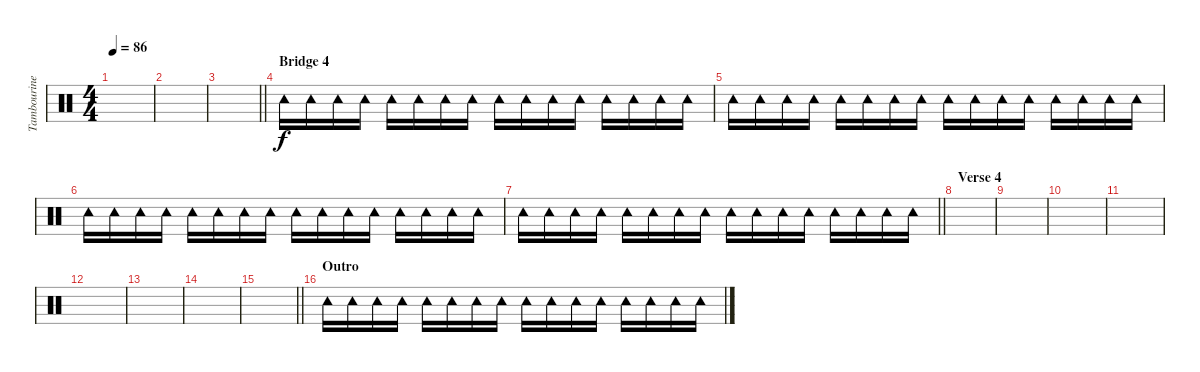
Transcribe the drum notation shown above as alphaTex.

\track ("Tambourine" "Tambourine") {instrument percussion}
\staff {score}
\articulation defaults
\ts (4 4)
\tempo 86
\clef neutral
\ks c
|
|
\barLineRight lightlight
|
\section ("" "Bridge 4")
"Tambourine (hit)".16 "Tambourine (hit)".16 "Tambourine (hit)".16 "Tambourine (hit)".16 "Tambourine (hit)".16 "Tambourine (hit)".16 "Tambourine (hit)".16 "Tambourine (hit)".16 "Tambourine (hit)".16 "Tambourine (hit)".16 "Tambourine (hit)".16 "Tambourine (hit)".16 "Tambourine (hit)".16 "Tambourine (hit)".16 "Tambourine (hit)".16 "Tambourine (hit)".16 |
"Tambourine (hit)".16 "Tambourine (hit)".16 "Tambourine (hit)".16 "Tambourine (hit)".16 "Tambourine (hit)".16 "Tambourine (hit)".16 "Tambourine (hit)".16 "Tambourine (hit)".16 "Tambourine (hit)".16 "Tambourine (hit)".16 "Tambourine (hit)".16 "Tambourine (hit)".16 "Tambourine (hit)".16 "Tambourine (hit)".16 "Tambourine (hit)".16 "Tambourine (hit)".16 |
"Tambourine (hit)".16 "Tambourine (hit)".16 "Tambourine (hit)".16 "Tambourine (hit)".16 "Tambourine (hit)".16 "Tambourine (hit)".16 "Tambourine (hit)".16 "Tambourine (hit)".16 "Tambourine (hit)".16 "Tambourine (hit)".16 "Tambourine (hit)".16 "Tambourine (hit)".16 "Tambourine (hit)".16 "Tambourine (hit)".16 "Tambourine (hit)".16 "Tambourine (hit)".16 |
\barLineRight lightlight "Tambourine (hit)".16 "Tambourine (hit)".16 "Tambourine (hit)".16 "Tambourine (hit)".16 "Tambourine (hit)".16 "Tambourine (hit)".16 "Tambourine (hit)".16 "Tambourine (hit)".16 "Tambourine (hit)".16 "Tambourine (hit)".16 "Tambourine (hit)".16 "Tambourine (hit)".16 "Tambourine (hit)".16 "Tambourine (hit)".16 "Tambourine (hit)".16 "Tambourine (hit)".16
|
\section ("" "Verse 4")
|
|
|
|
|
|
|
\barLineRight lightlight
|
\section ("" "Outro")
"Tambourine (hit)".16 "Tambourine (hit)".16 "Tambourine (hit)".16 "Tambourine (hit)".16 "Tambourine (hit)".16 "Tambourine (hit)".16 "Tambourine (hit)".16 "Tambourine (hit)".16 "Tambourine (hit)".16 "Tambourine (hit)".16 "Tambourine (hit)".16 "Tambourine (hit)".16 "Tambourine (hit)".16 "Tambourine (hit)".16 "Tambourine (hit)".16 "Tambourine (hit)".16
